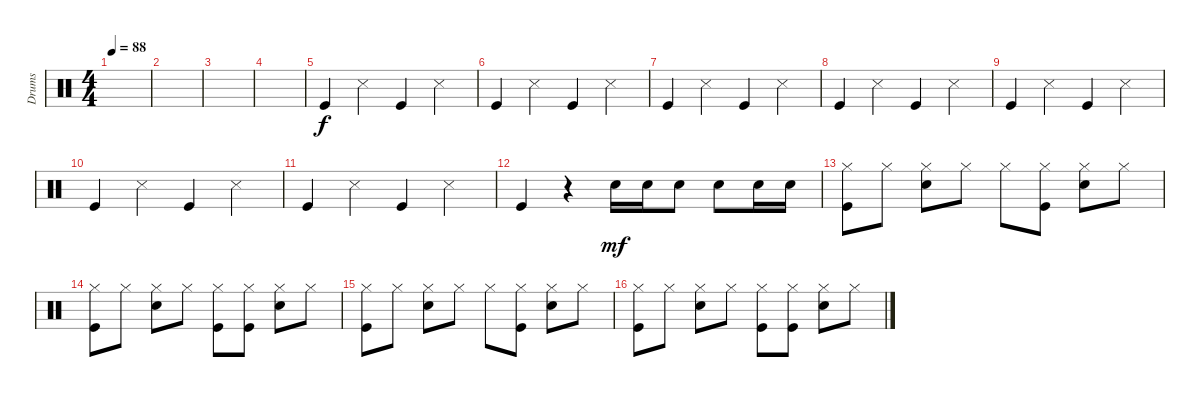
\defaultSystemsLayout 4
\bracketExtendMode groupsimilarinstruments
\multiTrackTrackNamePolicy hidden
\otherSystemsTrackNameOrientation horizontal
\track ("Drumkit" "Drums") {instrument percussion}
\staff {score}
\articulation defaults
\ts (4 4)
\tempo 88
\clef neutral
\ks c
|
|
|
|
"Kick (hit)".4 "Snare (side stick) 3".4 "Kick (hit)".4 "Snare (side stick) 3".4 |
"Kick (hit)".4 "Snare (side stick) 3".4 "Kick (hit)".4 "Snare (side stick) 3".4 |
"Kick (hit)".4 "Snare (side stick) 3".4 "Kick (hit)".4 "Snare (side stick) 3".4 |
"Kick (hit)".4 "Snare (side stick) 3".4 "Kick (hit)".4 "Snare (side stick) 3".4 |
"Kick (hit)".4 "Snare (side stick) 3".4 "Kick (hit)".4 "Snare (side stick) 3".4 |
"Kick (hit)".4 "Snare (side stick) 3".4 "Kick (hit)".4 "Snare (side stick) 3".4 |
"Kick (hit)".4 "Snare (side stick) 3".4 "Kick (hit)".4 "Snare (side stick) 3".4 |
"Kick (hit)".4 r.4 "Snare (hit) 2".16{dy mf} "Snare (hit) 2".16 "Snare (hit) 2".8 "Snare (hit) 2".8 "Snare (hit) 2".16 "Snare (hit) 2".16 |
("Kick (hit)" "Hi-Hat (closed)").8 "Hi-Hat (closed)".8 ("Snare (hit) 2" "Hi-Hat (closed)").8 "Hi-Hat (closed)".8 "Hi-Hat (closed)".8 ("Hi-Hat (closed)" "Kick (hit)").8 ("Hi-Hat (closed)" "Snare (hit) 2").8 "Hi-Hat (closed)".8 |
("Kick (hit)" "Hi-Hat (closed)").8 "Hi-Hat (closed)".8 ("Snare (hit) 2" "Hi-Hat (closed)").8 "Hi-Hat (closed)".8 ("Hi-Hat (closed)" "Kick (hit)").8 ("Hi-Hat (closed)" "Kick (hit)").8 ("Hi-Hat (closed)" "Snare (hit) 2").8 "Hi-Hat (closed)".8 |
("Kick (hit)" "Hi-Hat (closed)").8 "Hi-Hat (closed)".8 ("Snare (hit) 2" "Hi-Hat (closed)").8 "Hi-Hat (closed)".8 "Hi-Hat (closed)".8 ("Hi-Hat (closed)" "Kick (hit)").8 ("Hi-Hat (closed)" "Snare (hit) 2").8 "Hi-Hat (closed)".8 |
("Kick (hit)" "Hi-Hat (closed)").8 "Hi-Hat (closed)".8 ("Snare (hit) 2" "Hi-Hat (closed)").8 "Hi-Hat (closed)".8 ("Hi-Hat (closed)" "Kick (hit)").8 ("Hi-Hat (closed)" "Kick (hit)").8 ("Hi-Hat (closed)" "Snare (hit) 2").8 "Hi-Hat (closed)".8
